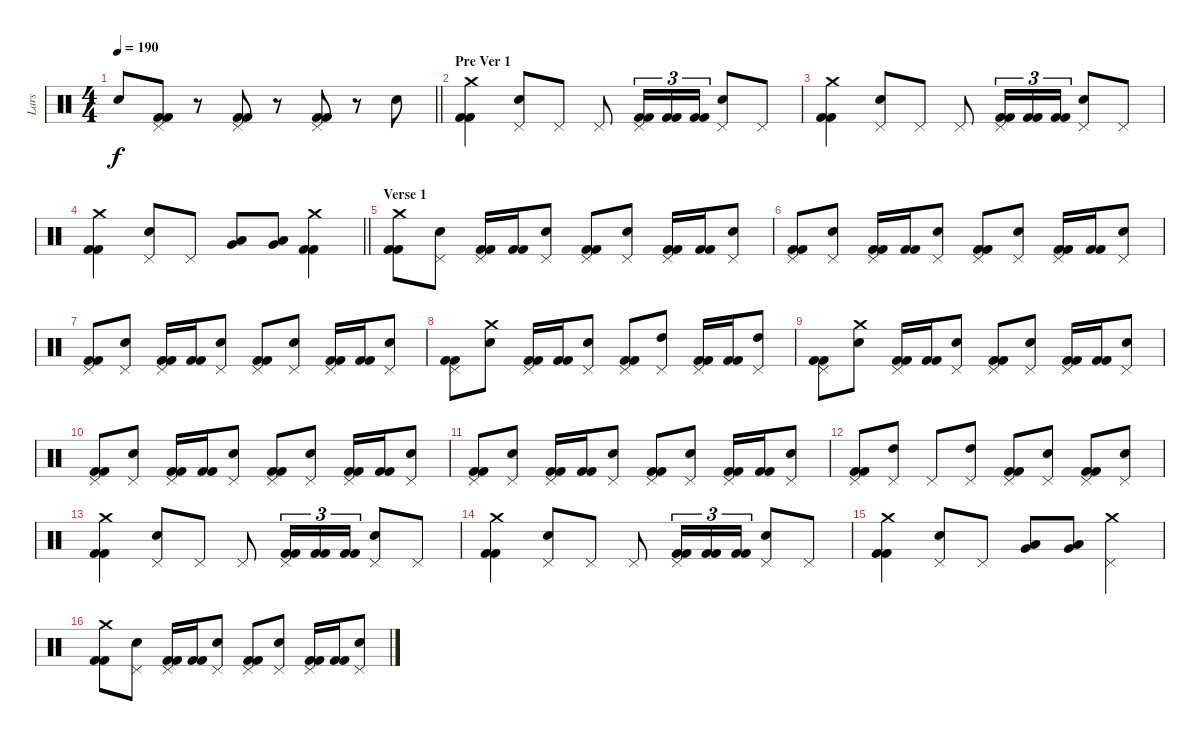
\track ("Lars" "Lars") {instrument percussion}
\staff {score}
\articulation defaults
\ts (4 4)
\tempo 190
\clef neutral
\barLineRight lightlight
\ks c "Electric Snare (hit)".8{dy f}
("Pedal Hi-Hat (hit)" "Kick (hit) 2" "Kick (hit) 2").8 r.8 ("Pedal Hi-Hat (hit)" "Kick (hit) 2" "Kick (hit) 2").8 r.8 ("Pedal Hi-Hat (hit)" "Kick (hit) 2" "Kick (hit) 2").8 r.8 "Electric Snare (hit)".8 |
\section ("" "Pre Ver 1")
("Crash medium (hit)" "Kick (hit) 2" "Kick (hit) 2").4 ("Pedal Hi-Hat (hit)" "Electric Snare (hit)").8 "Pedal Hi-Hat (hit)".8 "Pedal Hi-Hat (hit)".8 ("Pedal Hi-Hat (hit)" "Kick (hit) 2" "Kick (hit) 2").16{tu (3 2)} ("Kick (hit) 2" "Kick (hit) 2").16{tu (3 2)} ("Kick (hit) 2" "Kick (hit) 2").16{tu (3 2)} ("Pedal Hi-Hat (hit)" "Electric Snare (hit)").8 "Pedal Hi-Hat (hit)".8 |
("Crash medium (hit)" "Kick (hit) 2" "Kick (hit) 2").4 ("Pedal Hi-Hat (hit)" "Electric Snare (hit)").8 "Pedal Hi-Hat (hit)".8 "Pedal Hi-Hat (hit)".8 ("Pedal Hi-Hat (hit)" "Kick (hit) 2" "Kick (hit) 2").16{tu (3 2)} ("Kick (hit) 2" "Kick (hit) 2").16{tu (3 2)} ("Kick (hit) 2" "Kick (hit) 2").16{tu (3 2)} ("Pedal Hi-Hat (hit)" "Electric Snare (hit)").8 "Pedal Hi-Hat (hit)".8 |
\barLineRight lightlight
("Crash medium (hit)" "Kick (hit) 2" "Kick (hit) 2").4 ("Pedal Hi-Hat (hit)" "Electric Snare (hit)").8 "Pedal Hi-Hat (hit)".8 ("Very Low Tom (hit)" "Low Tom (hit)").8 ("Very Low Tom (hit)" "Low Tom (hit)").8 ("Crash medium (hit)" "Kick (hit) 2" "Kick (hit) 2").4 |
\section ("" "Verse 1")
("Crash medium (hit)" "Kick (hit) 2" "Kick (hit) 2").8 ("Pedal Hi-Hat (hit)" "Electric Snare (hit)").8 ("Pedal Hi-Hat (hit)" "Kick (hit) 2" "Kick (hit) 2").16 ("Kick (hit) 2" "Kick (hit) 2").16 ("Pedal Hi-Hat (hit)" "Electric Snare (hit)").8 ("Pedal Hi-Hat (hit)" "Kick (hit) 2" "Kick (hit) 2").8 ("Pedal Hi-Hat (hit)" "Electric Snare (hit)").8 ("Pedal Hi-Hat (hit)" "Kick (hit) 2" "Kick (hit) 2").16 ("Kick (hit) 2" "Kick (hit) 2").16 ("Pedal Hi-Hat (hit)" "Electric Snare (hit)").8 |
("Pedal Hi-Hat (hit)" "Kick (hit) 2" "Kick (hit) 2").8 ("Pedal Hi-Hat (hit)" "Electric Snare (hit)").8 ("Pedal Hi-Hat (hit)" "Kick (hit) 2" "Kick (hit) 2").16 ("Kick (hit) 2" "Kick (hit) 2").16 ("Pedal Hi-Hat (hit)" "Electric Snare (hit)").8 ("Pedal Hi-Hat (hit)" "Kick (hit) 2" "Kick (hit) 2").8 ("Pedal Hi-Hat (hit)" "Electric Snare (hit)").8 ("Pedal Hi-Hat (hit)" "Kick (hit) 2" "Kick (hit) 2").16 ("Kick (hit) 2" "Kick (hit) 2").16 ("Pedal Hi-Hat (hit)" "Electric Snare (hit)").8 |
("Pedal Hi-Hat (hit)" "Kick (hit) 2" "Kick (hit) 2").8 ("Pedal Hi-Hat (hit)" "Electric Snare (hit)").8 ("Pedal Hi-Hat (hit)" "Kick (hit) 2" "Kick (hit) 2").16 ("Kick (hit) 2" "Kick (hit) 2").16 ("Pedal Hi-Hat (hit)" "Electric Snare (hit)").8 ("Pedal Hi-Hat (hit)" "Kick (hit) 2" "Kick (hit) 2").8 ("Pedal Hi-Hat (hit)" "Electric Snare (hit)").8 ("Pedal Hi-Hat (hit)" "Kick (hit) 2" "Kick (hit) 2").16 ("Kick (hit) 2" "Kick (hit) 2").16 ("Pedal Hi-Hat (hit)" "Electric Snare (hit)").8 |
("Pedal Hi-Hat (hit)" "Kick (hit) 2" "Kick (hit) 2").8 ("Crash medium (hit)" "Electric Snare (hit)").8 ("Pedal Hi-Hat (hit)" "Kick (hit) 2" "Kick (hit) 2").16 ("Kick (hit) 2" "Kick (hit) 2").16 ("Pedal Hi-Hat (hit)" "Electric Snare (hit)").8 ("Pedal Hi-Hat (hit)" "Kick (hit) 2" "Kick (hit) 2").8 ("Pedal Hi-Hat (hit)" "High Tom (hit)").8 ("Pedal Hi-Hat (hit)" "Kick (hit) 2" "Kick (hit) 2").16 ("Kick (hit) 2" "Kick (hit) 2").16 ("Pedal Hi-Hat (hit)" "High Tom (hit)").8 |
("Pedal Hi-Hat (hit)" "Kick (hit) 2" "Kick (hit) 2").8 ("Crash medium (hit)" "Electric Snare (hit)").8 ("Pedal Hi-Hat (hit)" "Kick (hit) 2" "Kick (hit) 2").16 ("Kick (hit) 2" "Kick (hit) 2").16 ("Pedal Hi-Hat (hit)" "Electric Snare (hit)").8 ("Pedal Hi-Hat (hit)" "Kick (hit) 2" "Kick (hit) 2").8 ("Pedal Hi-Hat (hit)" "Electric Snare (hit)").8 ("Pedal Hi-Hat (hit)" "Kick (hit) 2" "Kick (hit) 2").16 ("Kick (hit) 2" "Kick (hit) 2").16 ("Pedal Hi-Hat (hit)" "Electric Snare (hit)").8 |
("Pedal Hi-Hat (hit)" "Kick (hit) 2" "Kick (hit) 2").8 ("Pedal Hi-Hat (hit)" "Electric Snare (hit)").8 ("Pedal Hi-Hat (hit)" "Kick (hit) 2" "Kick (hit) 2").16 ("Kick (hit) 2" "Kick (hit) 2").16 ("Pedal Hi-Hat (hit)" "Electric Snare (hit)").8 ("Pedal Hi-Hat (hit)" "Kick (hit) 2" "Kick (hit) 2").8 ("Pedal Hi-Hat (hit)" "Electric Snare (hit)").8 ("Pedal Hi-Hat (hit)" "Kick (hit) 2" "Kick (hit) 2").16 ("Kick (hit) 2" "Kick (hit) 2").16 ("Pedal Hi-Hat (hit)" "Electric Snare (hit)").8 |
("Pedal Hi-Hat (hit)" "Kick (hit) 2" "Kick (hit) 2").8 ("Pedal Hi-Hat (hit)" "Electric Snare (hit)").8 ("Pedal Hi-Hat (hit)" "Kick (hit) 2" "Kick (hit) 2").16 ("Kick (hit) 2" "Kick (hit) 2").16 ("Pedal Hi-Hat (hit)" "Electric Snare (hit)").8 ("Pedal Hi-Hat (hit)" "Kick (hit) 2" "Kick (hit) 2").8 ("Pedal Hi-Hat (hit)" "Electric Snare (hit)").8 ("Pedal Hi-Hat (hit)" "Kick (hit) 2" "Kick (hit) 2").16 ("Kick (hit) 2" "Kick (hit) 2").16 ("Pedal Hi-Hat (hit)" "Electric Snare (hit)").8 |
("Pedal Hi-Hat (hit)" "Kick (hit) 2" "Kick (hit) 2").8 ("Pedal Hi-Hat (hit)" "High Tom (hit)").8 "Pedal Hi-Hat (hit)".8 ("Pedal Hi-Hat (hit)" "High Tom (hit)").8 ("Pedal Hi-Hat (hit)" "Kick (hit) 2" "Kick (hit) 2").8 ("Pedal Hi-Hat (hit)" "Electric Snare (hit)").8 ("Pedal Hi-Hat (hit)" "Kick (hit) 2" "Kick (hit) 2").8 ("Pedal Hi-Hat (hit)" "Electric Snare (hit)").8 |
("Crash medium (hit)" "Kick (hit) 2" "Kick (hit) 2").4 ("Pedal Hi-Hat (hit)" "Electric Snare (hit)").8 "Pedal Hi-Hat (hit)".8 "Pedal Hi-Hat (hit)".8 ("Pedal Hi-Hat (hit)" "Kick (hit) 2" "Kick (hit) 2").16{tu (3 2)} ("Kick (hit) 2" "Kick (hit) 2").16{tu (3 2)} ("Kick (hit) 2" "Kick (hit) 2").16{tu (3 2)} ("Pedal Hi-Hat (hit)" "Electric Snare (hit)").8 "Pedal Hi-Hat (hit)".8 |
("Crash medium (hit)" "Kick (hit) 2" "Kick (hit) 2").4 ("Pedal Hi-Hat (hit)" "Electric Snare (hit)").8 "Pedal Hi-Hat (hit)".8 "Pedal Hi-Hat (hit)".8 ("Pedal Hi-Hat (hit)" "Kick (hit) 2" "Kick (hit) 2").16{tu (3 2)} ("Kick (hit) 2" "Kick (hit) 2").16{tu (3 2)} ("Kick (hit) 2" "Kick (hit) 2").16{tu (3 2)} ("Pedal Hi-Hat (hit)" "Electric Snare (hit)").8 "Pedal Hi-Hat (hit)".8 |
("Crash medium (hit)" "Kick (hit) 2" "Kick (hit) 2").4 ("Pedal Hi-Hat (hit)" "Electric Snare (hit)").8 "Pedal Hi-Hat (hit)".8 ("Low Tom (hit)" "Very Low Tom (hit)").8 ("Low Tom (hit)" "Very Low Tom (hit)").8 ("Pedal Hi-Hat (hit)" "Crash medium (hit)").4 |
("Crash medium (hit)" "Kick (hit) 2" "Kick (hit) 2").8 ("Pedal Hi-Hat (hit)" "Electric Snare (hit)").8 ("Pedal Hi-Hat (hit)" "Kick (hit) 2" "Kick (hit) 2").16 ("Kick (hit) 2" "Kick (hit) 2").16 ("Pedal Hi-Hat (hit)" "Electric Snare (hit)").8 ("Pedal Hi-Hat (hit)" "Kick (hit) 2" "Kick (hit) 2").8 ("Pedal Hi-Hat (hit)" "Electric Snare (hit)").8 ("Pedal Hi-Hat (hit)" "Kick (hit) 2" "Kick (hit) 2").16 ("Kick (hit) 2" "Kick (hit) 2").16 ("Pedal Hi-Hat (hit)" "Electric Snare (hit)").8
